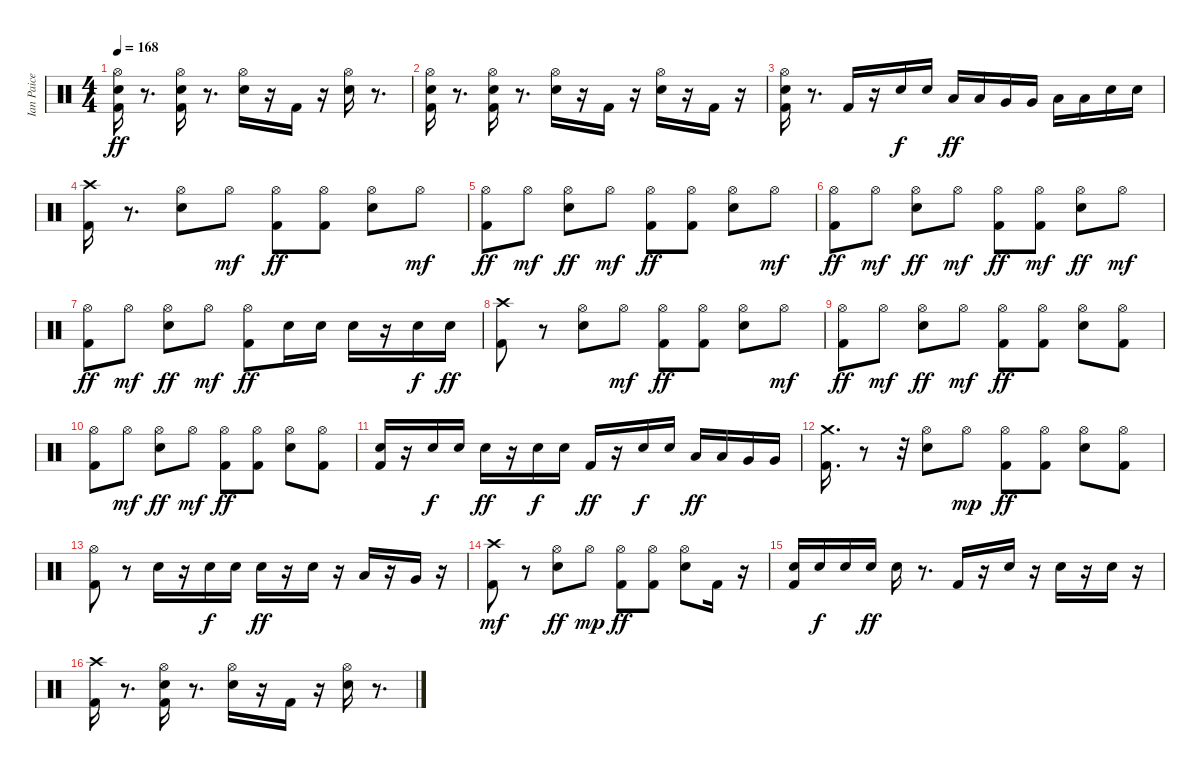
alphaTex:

\track ("Ian Paice" "Ian Paice") {instrument percussion}
\staff {score}
\articulation defaults
\ts (4 4)
\tempo 168
\clef neutral
\ks c
("Electric Snare (hit)" "Kick (hit) 2" "Hi-Hat (open)").16{dy ff} r.8{d} ("Electric Snare (hit)" "Kick (hit) 2" "Hi-Hat (open)").16 r.8{d} ("Electric Snare (hit)" "Hi-Hat (open)").16 r.16 "Kick (hit) 2".16 r.16 ("Electric Snare (hit)" "Hi-Hat (open)").16 r.8{d} |
("Electric Snare (hit)" "Kick (hit) 2" "Hi-Hat (open)").16 r.8{d} ("Electric Snare (hit)" "Kick (hit) 2" "Hi-Hat (open)").16 r.8{d} ("Electric Snare (hit)" "Hi-Hat (open)").16 r.16 "Kick (hit) 2".16 r.16 ("Electric Snare (hit)" "Hi-Hat (open)").16 r.16 "Kick (hit) 2".16 r.16 |
("Electric Snare (hit)" "Hi-Hat (open)" "Kick (hit) 2").16 r.8{d} "Kick (hit) 2".16 r.16 "Electric Snare (hit)".16{dy f} "Electric Snare (hit)".16 "Low Tom (hit)".16{dy ff} "Low Tom (hit)".16 "Very Low Tom (hit)".16 "Very Low Tom (hit)".16 "Low Floor Tom (hit)".16 "Low Floor Tom (hit)".16 "Electric Snare (hit)".16 "Electric Snare (hit)".16 |
("Crash high (hit)" "Kick (hit) 2").16 r.8{d} ("Hi-Hat (open)" "Electric Snare (hit)").8 "Hi-Hat (open)".8{dy mf} ("Hi-Hat (open)" "Kick (hit) 2").8{dy ff} ("Hi-Hat (open)" "Kick (hit) 2").8 ("Hi-Hat (open)" "Electric Snare (hit)").8 "Hi-Hat (open)".8{dy mf} |
("Hi-Hat (open)" "Kick (hit) 2").8{dy ff} "Hi-Hat (open)".8{dy mf} ("Hi-Hat (open)" "Electric Snare (hit)").8{dy ff} "Hi-Hat (open)".8{dy mf} ("Hi-Hat (open)" "Kick (hit) 2").8{dy ff} ("Hi-Hat (open)" "Kick (hit) 2").8 ("Hi-Hat (open)" "Electric Snare (hit)").8 "Hi-Hat (open)".8{dy mf} |
("Kick (hit) 2" "Hi-Hat (open)").8{dy ff} "Hi-Hat (open)".8{dy mf} ("Hi-Hat (open)" "Electric Snare (hit)").8{dy ff} "Hi-Hat (open)".8{dy mf} ("Kick (hit) 2" "Hi-Hat (open)").8{dy ff} ("Kick (hit) 2" "Hi-Hat (open)").8{dy mf} ("Hi-Hat (open)" "Electric Snare (hit)").8{dy ff} "Hi-Hat (open)".8{dy mf} |
("Kick (hit) 2" "Hi-Hat (open)").8{dy ff} "Hi-Hat (open)".8{dy mf} ("Hi-Hat (open)" "Electric Snare (hit)").8{dy ff} "Hi-Hat (open)".8{dy mf} ("Kick (hit) 2" "Hi-Hat (open)").8{dy ff} "Electric Snare (hit)".16 "Electric Snare (hit)".16 "Electric Snare (hit)".16 r.16 "Electric Snare (hit)".16{dy f} "Electric Snare (hit)".16{dy ff} |
("Kick (hit) 2" "Crash high (hit)").8 r.8 ("Hi-Hat (open)" "Electric Snare (hit)").8 "Hi-Hat (open)".8{dy mf} ("Hi-Hat (open)" "Kick (hit) 2").8{dy ff} ("Hi-Hat (open)" "Kick (hit) 2").8 ("Hi-Hat (open)" "Electric Snare (hit)").8 "Hi-Hat (open)".8{dy mf} |
("Hi-Hat (open)" "Kick (hit) 2").8{dy ff} "Hi-Hat (open)".8{dy mf} ("Hi-Hat (open)" "Electric Snare (hit)").8{dy ff} "Hi-Hat (open)".8{dy mf} ("Hi-Hat (open)" "Kick (hit) 2").8{dy ff} ("Hi-Hat (open)" "Kick (hit) 2").8 ("Hi-Hat (open)" "Electric Snare (hit)").8 ("Hi-Hat (open)" "Kick (hit) 2").8 |
("Hi-Hat (open)" "Kick (hit) 2").8 "Hi-Hat (open)".8{dy mf} ("Hi-Hat (open)" "Electric Snare (hit)").8{dy ff} "Hi-Hat (open)".8{dy mf} ("Hi-Hat (open)" "Kick (hit) 2").8{dy ff} ("Hi-Hat (open)" "Kick (hit) 2").8 ("Hi-Hat (open)" "Electric Snare (hit)").8 ("Hi-Hat (open)" "Kick (hit) 2").8 |
("Electric Snare (hit)" "Kick (hit) 2").16 r.16 "Electric Snare (hit)".16{dy f} "Electric Snare (hit)".16 "Electric Snare (hit)".16{dy ff} r.16 "Electric Snare (hit)".16{dy f} "Electric Snare (hit)".16 "Kick (hit) 2".16{dy ff} r.16 "Electric Snare (hit)".16{dy f} "Electric Snare (hit)".16 "Low Tom (hit)".16{dy ff} "Low Tom (hit)".16 "Very Low Tom (hit)".16 "Very Low Tom (hit)".16 |
("Kick (hit) 2" "Crash medium (hit)").16{d} r.8 r.32 ("Hi-Hat (open)" "Electric Snare (hit)").8 "Hi-Hat (open)".8{dy mp} ("Hi-Hat (open)" "Kick (hit) 2").8{dy ff} ("Hi-Hat (open)" "Kick (hit) 2").8 ("Hi-Hat (open)" "Electric Snare (hit)").8 ("Hi-Hat (open)" "Kick (hit) 2").8 |
("Hi-Hat (open)" "Kick (hit) 2").8 r.8 "Electric Snare (hit)".16 r.16 "Electric Snare (hit)".16{dy f} "Electric Snare (hit)".16 "Electric Snare (hit)".16{dy ff} r.16 "Electric Snare (hit)".16 r.16 "Low Tom (hit)".16 r.16 "Very Low Tom (hit)".16 r.16 |
("Kick (hit) 2" "Crash high (hit)").8{dy mf} r.8 ("Hi-Hat (open)" "Electric Snare (hit)").8{dy ff} "Hi-Hat (open)".8{dy mp} ("Hi-Hat (open)" "Kick (hit) 2").8{dy ff} ("Hi-Hat (open)" "Kick (hit) 2").8 ("Hi-Hat (open)" "Electric Snare (hit)").8 "Kick (hit) 2".16 r.16 |
("Kick (hit) 2" "Electric Snare (hit)").16 "Electric Snare (hit)".16{dy f} "Electric Snare (hit)".16 "Electric Snare (hit)".16{dy ff} "Electric Snare (hit)".16 r.8{d} "Kick (hit) 2".16 r.16 "Electric Snare (hit)".16 r.16 "Electric Snare (hit)".16 r.16 "Electric Snare (hit)".16 r.16 |
("Crash high (hit)" "Kick (hit) 2").16 r.8{d} ("Electric Snare (hit)" "Kick (hit) 2" "Hi-Hat (open)").16 r.8{d} ("Electric Snare (hit)" "Hi-Hat (open)").16 r.16 "Kick (hit) 2".16 r.16 ("Electric Snare (hit)" "Hi-Hat (open)").16 r.8{d}
